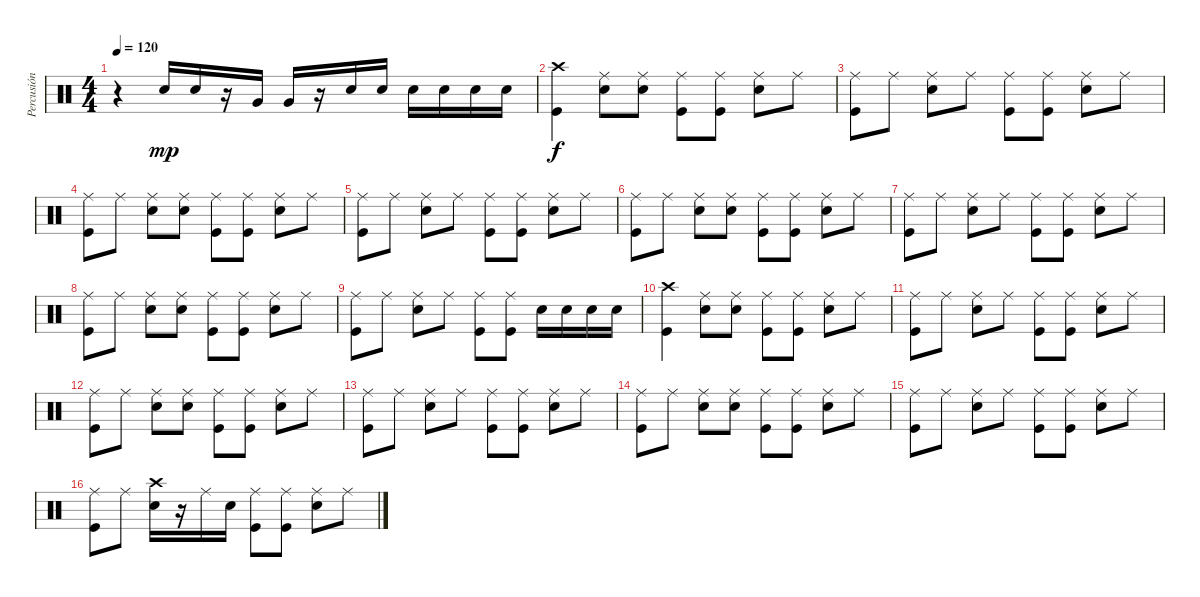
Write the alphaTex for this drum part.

\track ("Percusión" "Percusión") {instrument percussion}
\staff {score}
\articulation defaults
\ts (4 4)
\tempo 120
\clef neutral
\ks c
r.4{dy mp} "Snare (hit) 2".16 "Snare (hit) 2".16 r.16 "Very Low Tom (hit)".16 "Very Low Tom (hit)".16 r.16 "Snare (hit) 2".16 "Snare (hit) 2".16 "Snare (hit) 2".16 "Snare (hit) 2".16 "Snare (hit) 2".16 "Snare (hit) 2".16 |
("Crash high (hit)" "Kick (hit)").4{dy f} ("Ride (middle)" "Snare (hit) 2").8 ("Ride (middle)" "Snare (hit) 2").8 ("Ride (middle)" "Kick (hit)").8 ("Ride (middle)" "Kick (hit)").8 ("Ride (middle)" "Snare (hit) 2").8 "Ride (middle)".8 |
("Ride (middle)" "Kick (hit)").8 "Ride (middle)".8 ("Ride (middle)" "Snare (hit) 2").8 "Ride (middle)".8 ("Ride (middle)" "Kick (hit)").8 ("Ride (middle)" "Kick (hit)").8 ("Ride (middle)" "Snare (hit) 2").8 "Ride (middle)".8 |
("Ride (middle)" "Kick (hit)").8 "Ride (middle)".8 ("Ride (middle)" "Snare (hit) 2").8 ("Ride (middle)" "Snare (hit) 2").8 ("Ride (middle)" "Kick (hit)").8 ("Ride (middle)" "Kick (hit)").8 ("Ride (middle)" "Snare (hit) 2").8 "Ride (middle)".8 |
("Ride (middle)" "Kick (hit)").8 "Ride (middle)".8 ("Ride (middle)" "Snare (hit) 2").8 "Ride (middle)".8 ("Ride (middle)" "Kick (hit)").8 ("Ride (middle)" "Kick (hit)").8 ("Ride (middle)" "Snare (hit) 2").8 "Ride (middle)".8 |
("Ride (middle)" "Kick (hit)").8 "Ride (middle)".8 ("Ride (middle)" "Snare (hit) 2").8 ("Ride (middle)" "Snare (hit) 2").8 ("Ride (middle)" "Kick (hit)").8 ("Ride (middle)" "Kick (hit)").8 ("Ride (middle)" "Snare (hit) 2").8 "Ride (middle)".8 |
("Ride (middle)" "Kick (hit)").8 "Ride (middle)".8 ("Ride (middle)" "Snare (hit) 2").8 "Ride (middle)".8 ("Ride (middle)" "Kick (hit)").8 ("Ride (middle)" "Kick (hit)").8 ("Ride (middle)" "Snare (hit) 2").8 "Ride (middle)".8 |
("Ride (middle)" "Kick (hit)").8 "Ride (middle)".8 ("Ride (middle)" "Snare (hit) 2").8 ("Ride (middle)" "Snare (hit) 2").8 ("Ride (middle)" "Kick (hit)").8 ("Ride (middle)" "Kick (hit)").8 ("Ride (middle)" "Snare (hit) 2").8 "Ride (middle)".8 |
("Ride (middle)" "Kick (hit)").8 "Ride (middle)".8 ("Ride (middle)" "Snare (hit) 2").8 "Ride (middle)".8 ("Ride (middle)" "Kick (hit)").8 ("Ride (middle)" "Kick (hit)").8 "Snare (hit) 2".16 "Snare (hit) 2".16 "Snare (hit) 2".16 "Snare (hit) 2".16 |
("Crash high (hit)" "Kick (hit)").4 ("Ride (middle)" "Snare (hit) 2").8 ("Ride (middle)" "Snare (hit) 2").8 ("Ride (middle)" "Kick (hit)").8 ("Ride (middle)" "Kick (hit)").8 ("Ride (middle)" "Snare (hit) 2").8 "Ride (middle)".8 |
("Ride (middle)" "Kick (hit)").8 "Ride (middle)".8 ("Ride (middle)" "Snare (hit) 2").8 "Ride (middle)".8 ("Ride (middle)" "Kick (hit)").8 ("Ride (middle)" "Kick (hit)").8 ("Ride (middle)" "Snare (hit) 2").8 "Ride (middle)".8 |
("Ride (middle)" "Kick (hit)").8 "Ride (middle)".8 ("Ride (middle)" "Snare (hit) 2").8 ("Ride (middle)" "Snare (hit) 2").8 ("Ride (middle)" "Kick (hit)").8 ("Ride (middle)" "Kick (hit)").8 ("Ride (middle)" "Snare (hit) 2").8 "Ride (middle)".8 |
("Ride (middle)" "Kick (hit)").8 "Ride (middle)".8 ("Ride (middle)" "Snare (hit) 2").8 "Ride (middle)".8 ("Ride (middle)" "Kick (hit)").8 ("Ride (middle)" "Kick (hit)").8 ("Ride (middle)" "Snare (hit) 2").8 "Ride (middle)".8 |
("Ride (middle)" "Kick (hit)").8 "Ride (middle)".8 ("Ride (middle)" "Snare (hit) 2").8 ("Ride (middle)" "Snare (hit) 2").8 ("Ride (middle)" "Kick (hit)").8 ("Ride (middle)" "Kick (hit)").8 ("Ride (middle)" "Snare (hit) 2").8 "Ride (middle)".8 |
("Ride (middle)" "Kick (hit)").8 "Ride (middle)".8 ("Ride (middle)" "Snare (hit) 2").8 "Ride (middle)".8 ("Ride (middle)" "Kick (hit)").8 ("Ride (middle)" "Kick (hit)").8 ("Ride (middle)" "Snare (hit) 2").8 "Ride (middle)".8 |
("Ride (middle)" "Kick (hit)").8 "Ride (middle)".8 ("Crash high (hit)" "Snare (hit) 2").16 r.16 "Ride (middle)".16 "Snare (hit) 2".16 ("Ride (middle)" "Kick (hit)").8 ("Ride (middle)" "Kick (hit)").8 ("Ride (middle)" "Snare (hit) 2").8 "Ride (middle)".8
